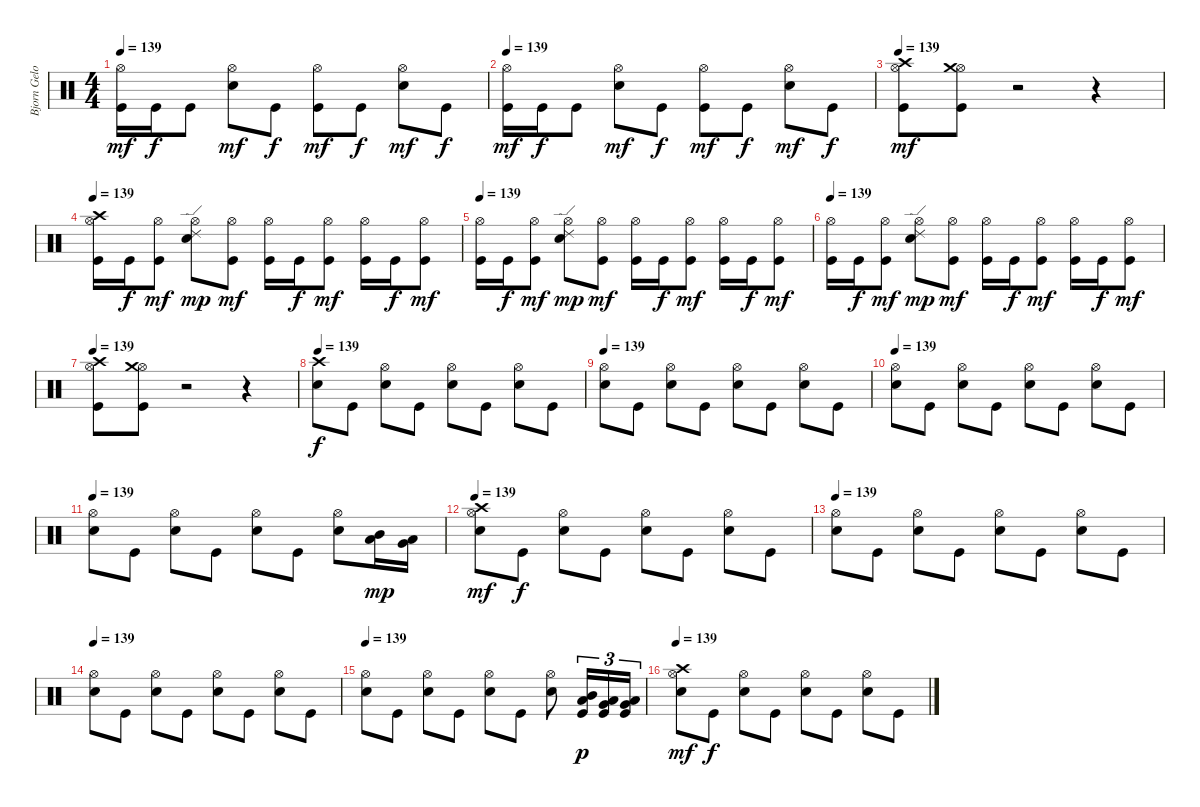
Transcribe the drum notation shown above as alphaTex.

\track ("Bjorn Gelotte-Drum" "Bjorn Gelo") {instrument percussion}
\staff {score}
\articulation defaults
\ts (4 4)
\tempo 139
\clef neutral
\ks c
("Kick (hit)" "Hi-Hat (open)").16{dy mf} "Kick (hit)".16{dy f} "Kick (hit)".8 ("Electric Snare (hit)" "Hi-Hat (open)").8{dy mf} "Kick (hit)".8{dy f} ("Kick (hit)" "Hi-Hat (open)").8{dy mf} "Kick (hit)".8{dy f} ("Electric Snare (hit)" "Hi-Hat (open)").8{dy mf} "Kick (hit)".8{dy f} |
\tempo 139
("Kick (hit)" "Hi-Hat (open)").16{dy mf} "Kick (hit)".16{dy f} "Kick (hit)".8 ("Electric Snare (hit)" "Hi-Hat (open)").8{dy mf} "Kick (hit)".8{dy f} ("Kick (hit)" "Hi-Hat (open)").8{dy mf} "Kick (hit)".8{dy f} ("Electric Snare (hit)" "Hi-Hat (open)").8{dy mf} "Kick (hit)".8{dy f} |
\tempo 139
("Kick (hit)" "Hi-Hat (open)" "Crash high (hit)").8{dy mf} ("Kick (hit)" "Hi-Hat (open)" "Crash medium (hit)").8 r.2 r.4 |
\tempo 139
("Kick (hit)" "Hi-Hat (open)" "Crash high (hit)").16 "Kick (hit)".16{dy f} ("Kick (hit)" "Hi-Hat (open)").8{dy mf} ("Electric Snare (hit)" "Hi-Hat (open)" "Ride (edge) 2").8{dy mp} ("Kick (hit)" "Hi-Hat (open)").8{dy mf} ("Kick (hit)" "Hi-Hat (open)").16 "Kick (hit)".16{dy f} ("Kick (hit)" "Hi-Hat (open)").8{dy mf} ("Kick (hit)" "Hi-Hat (open)").16 "Kick (hit)".16{dy f} ("Kick (hit)" "Hi-Hat (open)").8{dy mf} |
\tempo 139
("Kick (hit)" "Hi-Hat (open)").16 "Kick (hit)".16{dy f} ("Kick (hit)" "Hi-Hat (open)").8{dy mf} ("Electric Snare (hit)" "Hi-Hat (open)" "Ride (edge) 2").8{dy mp} ("Kick (hit)" "Hi-Hat (open)").8{dy mf} ("Kick (hit)" "Hi-Hat (open)").16 "Kick (hit)".16{dy f} ("Kick (hit)" "Hi-Hat (open)").8{dy mf} ("Kick (hit)" "Hi-Hat (open)").16 "Kick (hit)".16{dy f} ("Kick (hit)" "Hi-Hat (open)").8{dy mf} |
\tempo 139
("Kick (hit)" "Hi-Hat (open)").16 "Kick (hit)".16{dy f} ("Kick (hit)" "Hi-Hat (open)").8{dy mf} ("Electric Snare (hit)" "Hi-Hat (open)" "Ride (edge) 2").8{dy mp} ("Kick (hit)" "Hi-Hat (open)").8{dy mf} ("Kick (hit)" "Hi-Hat (open)").16 "Kick (hit)".16{dy f} ("Kick (hit)" "Hi-Hat (open)").8{dy mf} ("Kick (hit)" "Hi-Hat (open)").16 "Kick (hit)".16{dy f} ("Kick (hit)" "Hi-Hat (open)").8{dy mf} |
\tempo 139
("Kick (hit)" "Hi-Hat (open)" "Crash high (hit)").8 ("Kick (hit)" "Hi-Hat (open)" "Crash medium (hit)").8 r.2 r.4 |
\tempo 139
("Electric Snare (hit)" "Crash high (hit)").8{dy f} "Kick (hit)".8 ("Electric Snare (hit)" "Hi-Hat (open)").8 "Kick (hit)".8 ("Electric Snare (hit)" "Hi-Hat (open)").8 "Kick (hit)".8 ("Electric Snare (hit)" "Hi-Hat (open)").8 "Kick (hit)".8 |
\tempo 139
("Electric Snare (hit)" "Hi-Hat (open)").8 "Kick (hit)".8 ("Electric Snare (hit)" "Hi-Hat (open)").8 "Kick (hit)".8 ("Electric Snare (hit)" "Hi-Hat (open)").8 "Kick (hit)".8 ("Electric Snare (hit)" "Hi-Hat (open)").8 "Kick (hit)".8 |
\tempo 139
("Electric Snare (hit)" "Hi-Hat (open)").8 "Kick (hit)".8 ("Electric Snare (hit)" "Hi-Hat (open)").8 "Kick (hit)".8 ("Electric Snare (hit)" "Hi-Hat (open)").8 "Kick (hit)".8 ("Electric Snare (hit)" "Hi-Hat (open)").8 "Kick (hit)".8 |
\tempo 139
("Electric Snare (hit)" "Hi-Hat (open)").8 "Kick (hit)".8 ("Electric Snare (hit)" "Hi-Hat (open)").8 "Kick (hit)".8 ("Electric Snare (hit)" "Hi-Hat (open)").8 "Kick (hit)".8 ("Electric Snare (hit)" "Hi-Hat (open)").8 ("Low Tom (hit)" "Mid Tom (hit)").16{dy mp} ("Very Low Tom (hit)" "Low Tom (hit)").16 |
\tempo 139
("Electric Snare (hit)" "Hi-Hat (open)" "Crash high (hit)").8{dy mf} "Kick (hit)".8{dy f} ("Electric Snare (hit)" "Hi-Hat (open)").8 "Kick (hit)".8 ("Electric Snare (hit)" "Hi-Hat (open)").8 "Kick (hit)".8 ("Electric Snare (hit)" "Hi-Hat (open)").8 "Kick (hit)".8 |
\tempo 139
("Electric Snare (hit)" "Hi-Hat (open)").8 "Kick (hit)".8 ("Electric Snare (hit)" "Hi-Hat (open)").8 "Kick (hit)".8 ("Electric Snare (hit)" "Hi-Hat (open)").8 "Kick (hit)".8 ("Electric Snare (hit)" "Hi-Hat (open)").8 "Kick (hit)".8 |
\tempo 139
("Electric Snare (hit)" "Hi-Hat (open)").8 "Kick (hit)".8 ("Electric Snare (hit)" "Hi-Hat (open)").8 "Kick (hit)".8 ("Electric Snare (hit)" "Hi-Hat (open)").8 "Kick (hit)".8 ("Electric Snare (hit)" "Hi-Hat (open)").8 "Kick (hit)".8 |
\tempo 139
("Electric Snare (hit)" "Hi-Hat (open)").8 "Kick (hit)".8 ("Electric Snare (hit)" "Hi-Hat (open)").8 "Kick (hit)".8 ("Electric Snare (hit)" "Hi-Hat (open)").8 "Kick (hit)".8 ("Electric Snare (hit)" "Hi-Hat (open)").8 ("Kick (hit)" "Low Tom (hit)" "Mid Tom (hit)").16{tu (3 2) dy p} ("Kick (hit)" "Very Low Tom (hit)" "Low Tom (hit)").16{tu (3 2)} ("Kick (hit)" "Low Floor Tom (hit)" "Very Low Tom (hit)").16{tu (3 2)} |
\tempo 139
("Electric Snare (hit)" "Hi-Hat (open)" "Crash high (hit)").8{dy mf} "Kick (hit)".8{dy f} ("Electric Snare (hit)" "Hi-Hat (open)").8 "Kick (hit)".8 ("Electric Snare (hit)" "Hi-Hat (open)").8 "Kick (hit)".8 ("Electric Snare (hit)" "Hi-Hat (open)").8 "Kick (hit)".8
